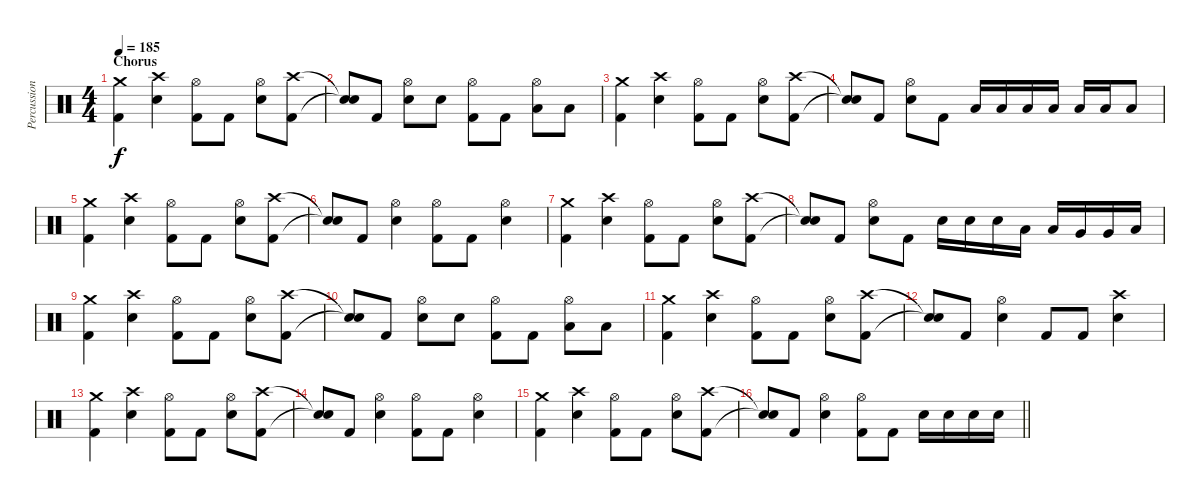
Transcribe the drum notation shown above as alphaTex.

\track ("Percussions" "Percussion") {instrument percussion}
\staff {score}
\articulation defaults
\ts (4 4)
\section ("" "Chorus")
\tempo 185
\clef neutral
\ks c
("Crash medium (hit)" "Kick (hit) 2").4{dy f} ("Crash high (hit)" "Electric Snare (hit)").4 ("Hi-Hat (open)" "Kick (hit) 2").8 "Kick (hit) 2".8 ("Hi-Hat (open)" "Electric Snare (hit)").8 ("Crash high (hit)" "Kick (hit) 2").8 |
("Snare (hit)"{t} "Snare (hit)"{t}).8 "Kick (hit) 2".8 ("Hi-Hat (open)" "Electric Snare (hit)").8 "Electric Snare (hit)".8 ("Hi-Hat (open)" "Kick (hit) 2").8 "Kick (hit) 2".8 ("Hi-Hat (open)" "Low Tom (hit)").8 "Low Tom (hit)".8 |
("Crash medium (hit)" "Kick (hit) 2").4 ("Crash high (hit)" "Electric Snare (hit)").4 ("Hi-Hat (open)" "Kick (hit) 2").8 "Kick (hit) 2".8 ("Hi-Hat (open)" "Electric Snare (hit)").8 ("Crash high (hit)" "Kick (hit) 2").8 |
("Snare (hit)"{t} "Snare (hit)"{t}).8 "Kick (hit) 2".8 ("Hi-Hat (open)" "Electric Snare (hit)").8 "Kick (hit) 2".8 "Low Tom (hit)".16 "Low Tom (hit)".16 "Low Tom (hit)".16 "Low Tom (hit)".16 "Low Tom (hit)".16 "Low Tom (hit)".16 "Low Tom (hit)".8 |
("Crash medium (hit)" "Kick (hit) 2").4 ("Crash high (hit)" "Electric Snare (hit)").4 ("Hi-Hat (open)" "Kick (hit) 2").8 "Kick (hit) 2".8 ("Hi-Hat (open)" "Electric Snare (hit)").8 ("Crash high (hit)" "Kick (hit) 2").8 |
("Snare (hit)"{t} "Snare (hit)"{t}).8 "Kick (hit) 2".8 ("Hi-Hat (open)" "Electric Snare (hit)").4 ("Hi-Hat (open)" "Kick (hit) 2").8 "Kick (hit) 2".8 ("Hi-Hat (open)" "Electric Snare (hit)").4 |
("Crash medium (hit)" "Kick (hit) 2").4 ("Crash high (hit)" "Electric Snare (hit)").4 ("Hi-Hat (open)" "Kick (hit) 2").8 "Kick (hit) 2".8 ("Hi-Hat (open)" "Electric Snare (hit)").8 ("Crash high (hit)" "Kick (hit) 2").8 |
("Snare (hit)"{t} "Snare (hit)"{t}).8 "Kick (hit) 2".8 ("Hi-Hat (open)" "Electric Snare (hit)").8 "Kick (hit) 2".8 "Electric Snare (hit)".16 "Electric Snare (hit)".16 "Electric Snare (hit)".16 "Low Tom (hit)".16 "Low Tom (hit)".16 "Very Low Tom (hit)".16 "Very Low Tom (hit)".16 "Low Floor Tom (hit)".16 |
("Crash medium (hit)" "Kick (hit) 2").4 ("Crash high (hit)" "Electric Snare (hit)").4 ("Hi-Hat (open)" "Kick (hit) 2").8 "Kick (hit) 2".8 ("Hi-Hat (open)" "Electric Snare (hit)").8 ("Crash high (hit)" "Kick (hit) 2").8 |
("Snare (hit)"{t} "Snare (hit)"{t}).8 "Kick (hit) 2".8 ("Hi-Hat (open)" "Electric Snare (hit)").8 "Electric Snare (hit)".8 ("Hi-Hat (open)" "Kick (hit) 2").8 "Kick (hit) 2".8 ("Hi-Hat (open)" "Low Tom (hit)").8 "Low Tom (hit)".8 |
("Crash medium (hit)" "Kick (hit) 2").4 ("Crash high (hit)" "Electric Snare (hit)").4 ("Hi-Hat (open)" "Kick (hit) 2").8 "Kick (hit) 2".8 ("Hi-Hat (open)" "Electric Snare (hit)").8 ("Crash high (hit)" "Kick (hit) 2").8 |
("Snare (hit)"{t} "Snare (hit)"{t}).8 "Kick (hit) 2".8 ("Hi-Hat (open)" "Electric Snare (hit)").4 "Kick (hit) 2".8 "Kick (hit) 2".8 ("Crash high (hit)" "Electric Snare (hit)").4 |
("Crash medium (hit)" "Kick (hit) 2").4 ("Crash high (hit)" "Electric Snare (hit)").4 ("Hi-Hat (open)" "Kick (hit) 2").8 "Kick (hit) 2".8 ("Hi-Hat (open)" "Electric Snare (hit)").8 ("Crash high (hit)" "Kick (hit) 2").8 |
("Snare (hit)"{t} "Snare (hit)"{t}).8 "Kick (hit) 2".8 ("Hi-Hat (open)" "Electric Snare (hit)").4 ("Hi-Hat (open)" "Kick (hit) 2").8 "Kick (hit) 2".8 ("Hi-Hat (open)" "Electric Snare (hit)").4 |
("Crash medium (hit)" "Kick (hit) 2").4 ("Crash high (hit)" "Electric Snare (hit)").4 ("Hi-Hat (open)" "Kick (hit) 2").8 "Kick (hit) 2".8 ("Hi-Hat (open)" "Electric Snare (hit)").8 ("Crash high (hit)" "Kick (hit) 2").8 |
\barLineRight lightlight
("Snare (hit)"{t} "Snare (hit)"{t}).8 "Kick (hit) 2".8 ("Hi-Hat (open)" "Electric Snare (hit)").4 ("Hi-Hat (open)" "Kick (hit) 2").8 "Kick (hit) 2".8 "Electric Snare (hit)".16 "Electric Snare (hit)".16 "Electric Snare (hit)".16 "Electric Snare (hit)".16
